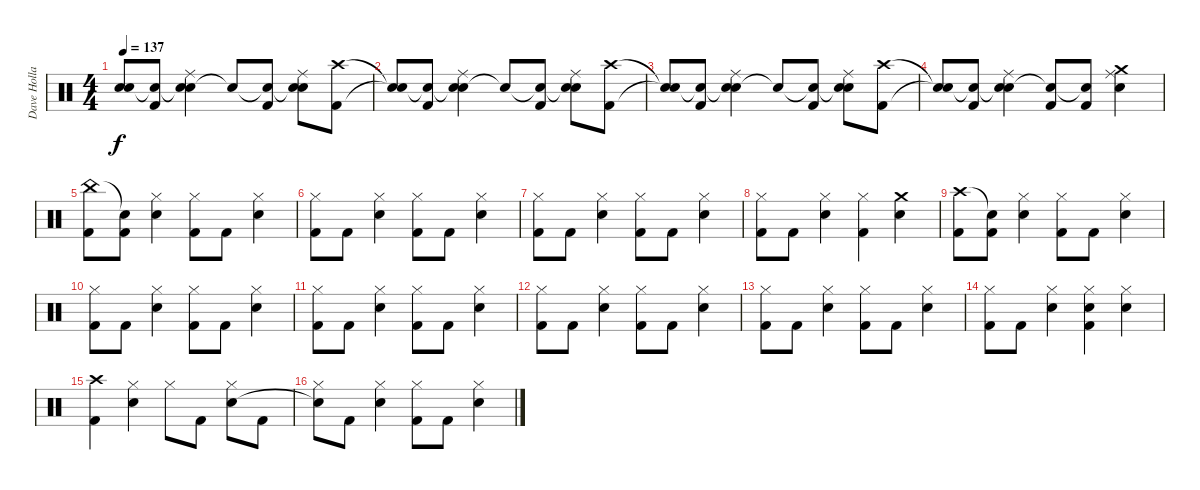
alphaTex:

\track ("Dave Holland" "Dave Holla") {instrument percussion}
\staff {score}
\articulation defaults
\ts (4 4)
\tempo 137
\clef neutral
\ks c
("Snare (hit)"{t} "Snare (hit)"{t}).8{dy f} ("Snare (hit)"{t} "Kick (hit) 2").8 ("Snare (hit)"{t} "Ride (middle)" "Snare (hit) 2").4 "Snare (hit)"{t}.8 ("Snare (hit)"{t} "Kick (hit) 2").8 ("Snare (hit)"{t} "Ride (middle)" "Snare (hit) 2").8 ("Crash high (hit)" "Kick (hit) 2").8 |
("Snare (hit)"{t} "Snare (hit)"{t}).8 ("Snare (hit)"{t} "Kick (hit) 2").8 ("Snare (hit)"{t} "Ride (middle)" "Snare (hit) 2").4 "Snare (hit)"{t}.8 ("Snare (hit)"{t} "Kick (hit) 2").8 ("Snare (hit)"{t} "Ride (middle)" "Snare (hit) 2").8 ("Crash high (hit)" "Kick (hit) 2").8 |
("Snare (hit)"{t} "Snare (hit)"{t}).8 ("Snare (hit)"{t} "Kick (hit) 2").8 ("Snare (hit)"{t} "Ride (middle)" "Snare (hit) 2").4 "Snare (hit)"{t}.8 ("Snare (hit)"{t} "Kick (hit) 2").8 ("Snare (hit)"{t} "Ride (middle)" "Snare (hit) 2").8 ("Crash high (hit)" "Kick (hit) 2").8 |
("Snare (hit)"{t} "Snare (hit)"{t}).8 ("Snare (hit)"{t} "Kick (hit) 2").8 ("Snare (hit)"{t} "Ride (middle)" "Snare (hit) 2").4 ("Snare (hit)"{t} "Kick (hit) 2").8 ("Snare (hit)"{t} "Kick (hit) 2").8 ("Crash medium (hit)" "Ride (middle)" "Snare (hit) 2").4 |
("China (hit)" "Kick (hit) 2").8 ("Snare (hit)"{t} "Kick (hit) 2").8 ("Hi-Hat (closed)" "Snare (hit) 2").4 ("Hi-Hat (closed)" "Kick (hit) 2").8 "Kick (hit) 2".8 ("Hi-Hat (closed)" "Snare (hit) 2").4 |
("Hi-Hat (closed)" "Kick (hit) 2").8 "Kick (hit) 2".8 ("Hi-Hat (closed)" "Snare (hit) 2").4 ("Hi-Hat (closed)" "Kick (hit) 2").8 "Kick (hit) 2".8 ("Hi-Hat (closed)" "Snare (hit) 2").4 |
("Hi-Hat (closed)" "Kick (hit) 2").8 "Kick (hit) 2".8 ("Hi-Hat (closed)" "Snare (hit) 2").4 ("Hi-Hat (closed)" "Kick (hit) 2").8 "Kick (hit) 2".8 ("Hi-Hat (closed)" "Snare (hit) 2").4 |
("Hi-Hat (closed)" "Kick (hit) 2").8 "Kick (hit) 2".8 ("Hi-Hat (closed)" "Snare (hit) 2").4 ("Hi-Hat (closed)" "Kick (hit) 2").4 ("Crash medium (hit)" "Snare (hit) 2").4 |
("Crash high (hit)" "Kick (hit) 2").8 ("Snare (hit)"{t} "Kick (hit) 2").8 ("Hi-Hat (closed)" "Snare (hit) 2").4 ("Hi-Hat (closed)" "Kick (hit) 2").8 "Kick (hit) 2".8 ("Hi-Hat (closed)" "Snare (hit) 2").4 |
("Hi-Hat (closed)" "Kick (hit) 2").8 "Kick (hit) 2".8 ("Hi-Hat (closed)" "Snare (hit) 2").4 ("Hi-Hat (closed)" "Kick (hit) 2").8 "Kick (hit) 2".8 ("Hi-Hat (closed)" "Snare (hit) 2").4 |
("Hi-Hat (closed)" "Kick (hit) 2").8 "Kick (hit) 2".8 ("Hi-Hat (closed)" "Snare (hit) 2").4 ("Hi-Hat (closed)" "Kick (hit) 2").8 "Kick (hit) 2".8 ("Hi-Hat (closed)" "Snare (hit) 2").4 |
("Hi-Hat (closed)" "Kick (hit) 2").8 "Kick (hit) 2".8 ("Hi-Hat (closed)" "Snare (hit) 2").4 ("Hi-Hat (closed)" "Kick (hit) 2").8 "Kick (hit) 2".8 ("Hi-Hat (closed)" "Snare (hit) 2").4 |
("Hi-Hat (closed)" "Kick (hit) 2").8 "Kick (hit) 2".8 ("Hi-Hat (closed)" "Snare (hit) 2").4 ("Hi-Hat (closed)" "Kick (hit) 2").8 "Kick (hit) 2".8 ("Hi-Hat (closed)" "Snare (hit) 2").4 |
("Hi-Hat (closed)" "Kick (hit) 2").8 "Kick (hit) 2".8 ("Hi-Hat (closed)" "Snare (hit) 2").4 ("Hi-Hat (closed)" "Snare (hit) 2" "Kick (hit) 2").4 ("Hi-Hat (closed)" "Snare (hit) 2").4 |
("Crash high (hit)" "Kick (hit) 2").4 ("Hi-Hat (closed)" "Snare (hit) 2").4 "Hi-Hat (closed)".8 "Kick (hit) 2".8 ("Hi-Hat (closed)" "Snare (hit) 2").8 "Kick (hit) 2".8 |
("Hi-Hat (closed)" "Snare (hit)"{t}).8 "Kick (hit) 2".8 ("Hi-Hat (closed)" "Snare (hit) 2").4 ("Hi-Hat (closed)" "Kick (hit) 2").8 "Kick (hit) 2".8 ("Hi-Hat (closed)" "Snare (hit) 2").4
